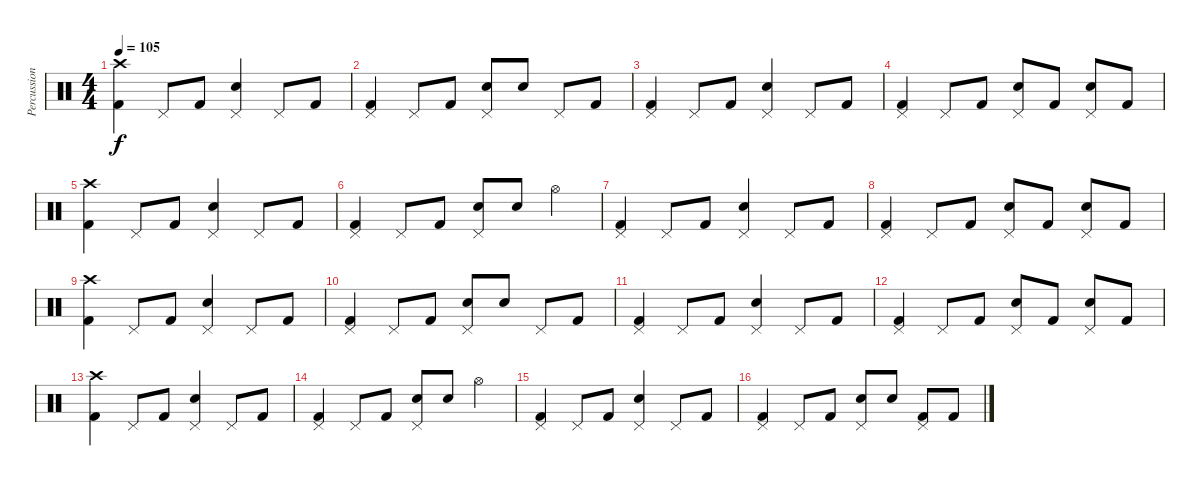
\track ("Percussion" "Percussion") {instrument percussion}
\staff {score}
\articulation defaults
\ts (4 4)
\tempo 105
\clef neutral
\ks c
("Crash high (hit)" "Kick (hit) 2").4{dy f} "Pedal Hi-Hat (hit)".8 "Kick (hit) 2".8 ("Pedal Hi-Hat (hit)" "Electric Snare (hit)").4 "Pedal Hi-Hat (hit)".8 "Kick (hit) 2".8 |
("Pedal Hi-Hat (hit)" "Kick (hit) 2").4 "Pedal Hi-Hat (hit)".8 "Kick (hit) 2".8 ("Pedal Hi-Hat (hit)" "Electric Snare (hit)").8 "Electric Snare (hit)".8 "Pedal Hi-Hat (hit)".8 "Kick (hit) 2".8 |
("Pedal Hi-Hat (hit)" "Kick (hit) 2").4 "Pedal Hi-Hat (hit)".8 "Kick (hit) 2".8 ("Pedal Hi-Hat (hit)" "Electric Snare (hit)").4 "Pedal Hi-Hat (hit)".8 "Kick (hit) 2".8 |
("Pedal Hi-Hat (hit)" "Kick (hit) 2").4 "Pedal Hi-Hat (hit)".8 "Kick (hit) 2".8 ("Pedal Hi-Hat (hit)" "Electric Snare (hit)").8 "Kick (hit) 2".8 ("Pedal Hi-Hat (hit)" "Electric Snare (hit)").8 "Kick (hit) 2".8 |
("Crash high (hit)" "Kick (hit) 2").4 "Pedal Hi-Hat (hit)".8 "Kick (hit) 2".8 ("Pedal Hi-Hat (hit)" "Electric Snare (hit)").4 "Pedal Hi-Hat (hit)".8 "Kick (hit) 2".8 |
("Pedal Hi-Hat (hit)" "Kick (hit) 2").4 "Pedal Hi-Hat (hit)".8 "Kick (hit) 2".8 ("Pedal Hi-Hat (hit)" "Electric Snare (hit)").8 "Electric Snare (hit)".8 "Hi-Hat (open)".4 |
("Pedal Hi-Hat (hit)" "Kick (hit) 2").4 "Pedal Hi-Hat (hit)".8 "Kick (hit) 2".8 ("Pedal Hi-Hat (hit)" "Electric Snare (hit)").4 "Pedal Hi-Hat (hit)".8 "Kick (hit) 2".8 |
("Pedal Hi-Hat (hit)" "Kick (hit) 2").4 "Pedal Hi-Hat (hit)".8 "Kick (hit) 2".8 ("Pedal Hi-Hat (hit)" "Electric Snare (hit)").8 "Kick (hit) 2".8 ("Pedal Hi-Hat (hit)" "Electric Snare (hit)").8 "Kick (hit) 2".8 |
("Crash high (hit)" "Kick (hit) 2").4 "Pedal Hi-Hat (hit)".8 "Kick (hit) 2".8 ("Pedal Hi-Hat (hit)" "Electric Snare (hit)").4 "Pedal Hi-Hat (hit)".8 "Kick (hit) 2".8 |
("Pedal Hi-Hat (hit)" "Kick (hit) 2").4 "Pedal Hi-Hat (hit)".8 "Kick (hit) 2".8 ("Pedal Hi-Hat (hit)" "Electric Snare (hit)").8 "Electric Snare (hit)".8 "Pedal Hi-Hat (hit)".8 "Kick (hit) 2".8 |
("Pedal Hi-Hat (hit)" "Kick (hit) 2").4 "Pedal Hi-Hat (hit)".8 "Kick (hit) 2".8 ("Pedal Hi-Hat (hit)" "Electric Snare (hit)").4 "Pedal Hi-Hat (hit)".8 "Kick (hit) 2".8 |
("Pedal Hi-Hat (hit)" "Kick (hit) 2").4 "Pedal Hi-Hat (hit)".8 "Kick (hit) 2".8 ("Pedal Hi-Hat (hit)" "Electric Snare (hit)").8 "Kick (hit) 2".8 ("Pedal Hi-Hat (hit)" "Electric Snare (hit)").8 "Kick (hit) 2".8 |
("Crash high (hit)" "Kick (hit) 2").4 "Pedal Hi-Hat (hit)".8 "Kick (hit) 2".8 ("Pedal Hi-Hat (hit)" "Electric Snare (hit)").4 "Pedal Hi-Hat (hit)".8 "Kick (hit) 2".8 |
("Pedal Hi-Hat (hit)" "Kick (hit) 2").4 "Pedal Hi-Hat (hit)".8 "Kick (hit) 2".8 ("Pedal Hi-Hat (hit)" "Electric Snare (hit)").8 "Electric Snare (hit)".8 "Hi-Hat (open)".4 |
("Pedal Hi-Hat (hit)" "Kick (hit) 2").4 "Pedal Hi-Hat (hit)".8 "Kick (hit) 2".8 ("Pedal Hi-Hat (hit)" "Electric Snare (hit)").4 "Pedal Hi-Hat (hit)".8 "Kick (hit) 2".8 |
("Pedal Hi-Hat (hit)" "Kick (hit) 2").4 "Pedal Hi-Hat (hit)".8 "Kick (hit) 2".8 ("Pedal Hi-Hat (hit)" "Electric Snare (hit)").8 "Electric Snare (hit)".8 ("Pedal Hi-Hat (hit)" "Kick (hit) 2").8 "Kick (hit) 2".8
